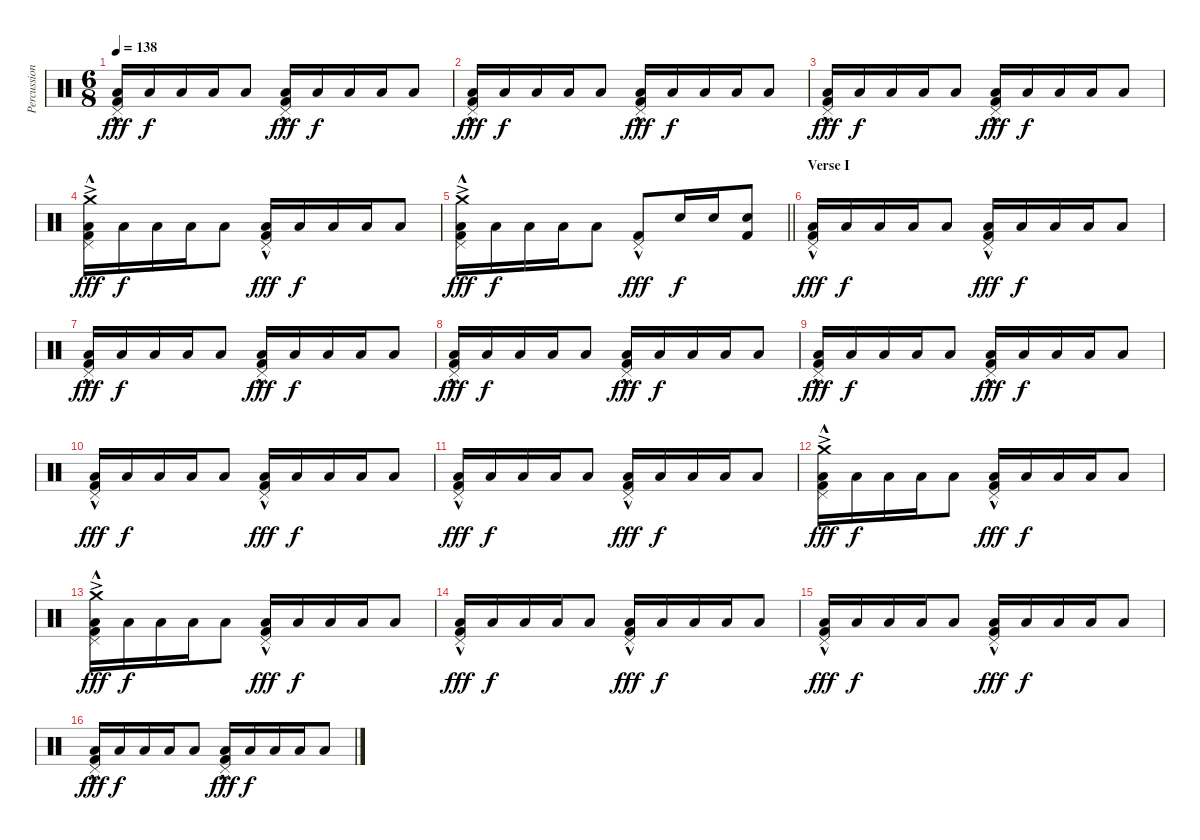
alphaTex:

\track ("Percussion" "Percussion") {instrument percussion}
\staff {score}
\articulation defaults
\ts (6 8)
\tempo 138
\clef neutral
\ks c
("Pedal Hi-Hat (hit)"{hac} "Low Floor Tom (hit)" "Kick (hit) 2").16{dy fff} "Low Floor Tom (hit)".16{dy f} "Low Floor Tom (hit)".16 "Low Floor Tom (hit)".16 "Low Floor Tom (hit)".8 ("Pedal Hi-Hat (hit)"{hac} "Low Floor Tom (hit)" "Kick (hit) 2").16{dy fff} "Low Floor Tom (hit)".16{dy f} "Low Floor Tom (hit)".16 "Low Floor Tom (hit)".16 "Low Floor Tom (hit)".8 |
("Pedal Hi-Hat (hit)"{hac} "Low Floor Tom (hit)" "Kick (hit) 2").16{dy fff} "Low Floor Tom (hit)".16{dy f} "Low Floor Tom (hit)".16 "Low Floor Tom (hit)".16 "Low Floor Tom (hit)".8 ("Pedal Hi-Hat (hit)"{hac} "Low Floor Tom (hit)" "Kick (hit) 2").16{dy fff} "Low Floor Tom (hit)".16{dy f} "Low Floor Tom (hit)".16 "Low Floor Tom (hit)".16 "Low Floor Tom (hit)".8 |
("Pedal Hi-Hat (hit)"{hac} "Low Floor Tom (hit)" "Kick (hit) 2").16{dy fff} "Low Floor Tom (hit)".16{dy f} "Low Floor Tom (hit)".16 "Low Floor Tom (hit)".16 "Low Floor Tom (hit)".8 ("Pedal Hi-Hat (hit)"{hac} "Low Floor Tom (hit)" "Kick (hit) 2").16{dy fff} "Low Floor Tom (hit)".16{dy f} "Low Floor Tom (hit)".16 "Low Floor Tom (hit)".16 "Low Floor Tom (hit)".8 |
("Crash medium (hit)"{ac} "Pedal Hi-Hat (hit)"{hac} "Low Floor Tom (hit)" "Kick (hit) 2").16{dy fff} "Low Floor Tom (hit)".16{dy f} "Low Floor Tom (hit)".16 "Low Floor Tom (hit)".16 "Low Floor Tom (hit)".8 ("Pedal Hi-Hat (hit)"{hac} "Low Floor Tom (hit)" "Kick (hit) 2").16{dy fff} "Low Floor Tom (hit)".16{dy f} "Low Floor Tom (hit)".16 "Low Floor Tom (hit)".16 "Low Floor Tom (hit)".8 |
\barLineRight lightlight
("Crash medium (hit)"{ac} "Pedal Hi-Hat (hit)"{hac} "Low Floor Tom (hit)" "Kick (hit) 2").16{dy fff} "Low Floor Tom (hit)".16{dy f} "Low Floor Tom (hit)".16 "Low Floor Tom (hit)".16 "Low Floor Tom (hit)".8 ("Pedal Hi-Hat (hit)"{hac} "Kick (hit) 2").8{dy fff} "Electric Snare (hit)".16{dy f} "Electric Snare (hit)".16 ("Electric Snare (hit)" "Kick (hit) 2").8 |
\section ("" "Verse I")
("Pedal Hi-Hat (hit)"{hac} "Low Floor Tom (hit)" "Kick (hit) 2").16{dy fff} "Low Floor Tom (hit)".16{dy f} "Low Floor Tom (hit)".16 "Low Floor Tom (hit)".16 "Low Floor Tom (hit)".8 ("Pedal Hi-Hat (hit)"{hac} "Low Floor Tom (hit)" "Kick (hit) 2").16{dy fff} "Low Floor Tom (hit)".16{dy f} "Low Floor Tom (hit)".16 "Low Floor Tom (hit)".16 "Low Floor Tom (hit)".8 |
("Pedal Hi-Hat (hit)"{hac} "Low Floor Tom (hit)" "Kick (hit) 2").16{dy fff} "Low Floor Tom (hit)".16{dy f} "Low Floor Tom (hit)".16 "Low Floor Tom (hit)".16 "Low Floor Tom (hit)".8 ("Pedal Hi-Hat (hit)"{hac} "Low Floor Tom (hit)" "Kick (hit) 2").16{dy fff} "Low Floor Tom (hit)".16{dy f} "Low Floor Tom (hit)".16 "Low Floor Tom (hit)".16 "Low Floor Tom (hit)".8 |
("Pedal Hi-Hat (hit)"{hac} "Low Floor Tom (hit)" "Kick (hit) 2").16{dy fff} "Low Floor Tom (hit)".16{dy f} "Low Floor Tom (hit)".16 "Low Floor Tom (hit)".16 "Low Floor Tom (hit)".8 ("Pedal Hi-Hat (hit)"{hac} "Low Floor Tom (hit)" "Kick (hit) 2").16{dy fff} "Low Floor Tom (hit)".16{dy f} "Low Floor Tom (hit)".16 "Low Floor Tom (hit)".16 "Low Floor Tom (hit)".8 |
("Pedal Hi-Hat (hit)"{hac} "Low Floor Tom (hit)" "Kick (hit) 2").16{dy fff} "Low Floor Tom (hit)".16{dy f} "Low Floor Tom (hit)".16 "Low Floor Tom (hit)".16 "Low Floor Tom (hit)".8 ("Pedal Hi-Hat (hit)"{hac} "Low Floor Tom (hit)" "Kick (hit) 2").16{dy fff} "Low Floor Tom (hit)".16{dy f} "Low Floor Tom (hit)".16 "Low Floor Tom (hit)".16 "Low Floor Tom (hit)".8 |
("Pedal Hi-Hat (hit)"{hac} "Low Floor Tom (hit)" "Kick (hit) 2").16{dy fff} "Low Floor Tom (hit)".16{dy f} "Low Floor Tom (hit)".16 "Low Floor Tom (hit)".16 "Low Floor Tom (hit)".8 ("Pedal Hi-Hat (hit)"{hac} "Low Floor Tom (hit)" "Kick (hit) 2").16{dy fff} "Low Floor Tom (hit)".16{dy f} "Low Floor Tom (hit)".16 "Low Floor Tom (hit)".16 "Low Floor Tom (hit)".8 |
("Pedal Hi-Hat (hit)"{hac} "Low Floor Tom (hit)" "Kick (hit) 2").16{dy fff} "Low Floor Tom (hit)".16{dy f} "Low Floor Tom (hit)".16 "Low Floor Tom (hit)".16 "Low Floor Tom (hit)".8 ("Pedal Hi-Hat (hit)"{hac} "Low Floor Tom (hit)" "Kick (hit) 2").16{dy fff} "Low Floor Tom (hit)".16{dy f} "Low Floor Tom (hit)".16 "Low Floor Tom (hit)".16 "Low Floor Tom (hit)".8 |
("Crash medium (hit)"{ac} "Pedal Hi-Hat (hit)"{hac} "Low Floor Tom (hit)" "Kick (hit) 2").16{dy fff} "Low Floor Tom (hit)".16{dy f} "Low Floor Tom (hit)".16 "Low Floor Tom (hit)".16 "Low Floor Tom (hit)".8 ("Pedal Hi-Hat (hit)"{hac} "Low Floor Tom (hit)" "Kick (hit) 2").16{dy fff} "Low Floor Tom (hit)".16{dy f} "Low Floor Tom (hit)".16 "Low Floor Tom (hit)".16 "Low Floor Tom (hit)".8 |
("Crash medium (hit)"{ac} "Pedal Hi-Hat (hit)"{hac} "Low Floor Tom (hit)" "Kick (hit) 2").16{dy fff} "Low Floor Tom (hit)".16{dy f} "Low Floor Tom (hit)".16 "Low Floor Tom (hit)".16 "Low Floor Tom (hit)".8 ("Pedal Hi-Hat (hit)"{hac} "Low Floor Tom (hit)" "Kick (hit) 2").16{dy fff} "Low Floor Tom (hit)".16{dy f} "Low Floor Tom (hit)".16 "Low Floor Tom (hit)".16 "Low Floor Tom (hit)".8 |
("Pedal Hi-Hat (hit)"{hac} "Low Floor Tom (hit)" "Kick (hit) 2").16{dy fff} "Low Floor Tom (hit)".16{dy f} "Low Floor Tom (hit)".16 "Low Floor Tom (hit)".16 "Low Floor Tom (hit)".8 ("Pedal Hi-Hat (hit)"{hac} "Low Floor Tom (hit)" "Kick (hit) 2").16{dy fff} "Low Floor Tom (hit)".16{dy f} "Low Floor Tom (hit)".16 "Low Floor Tom (hit)".16 "Low Floor Tom (hit)".8 |
("Pedal Hi-Hat (hit)"{hac} "Low Floor Tom (hit)" "Kick (hit) 2").16{dy fff} "Low Floor Tom (hit)".16{dy f} "Low Floor Tom (hit)".16 "Low Floor Tom (hit)".16 "Low Floor Tom (hit)".8 ("Pedal Hi-Hat (hit)"{hac} "Low Floor Tom (hit)" "Kick (hit) 2").16{dy fff} "Low Floor Tom (hit)".16{dy f} "Low Floor Tom (hit)".16 "Low Floor Tom (hit)".16 "Low Floor Tom (hit)".8 |
("Pedal Hi-Hat (hit)"{hac} "Low Floor Tom (hit)" "Kick (hit) 2").16{dy fff} "Low Floor Tom (hit)".16{dy f} "Low Floor Tom (hit)".16 "Low Floor Tom (hit)".16 "Low Floor Tom (hit)".8 ("Pedal Hi-Hat (hit)"{hac} "Low Floor Tom (hit)" "Kick (hit) 2").16{dy fff} "Low Floor Tom (hit)".16{dy f} "Low Floor Tom (hit)".16 "Low Floor Tom (hit)".16 "Low Floor Tom (hit)".8
